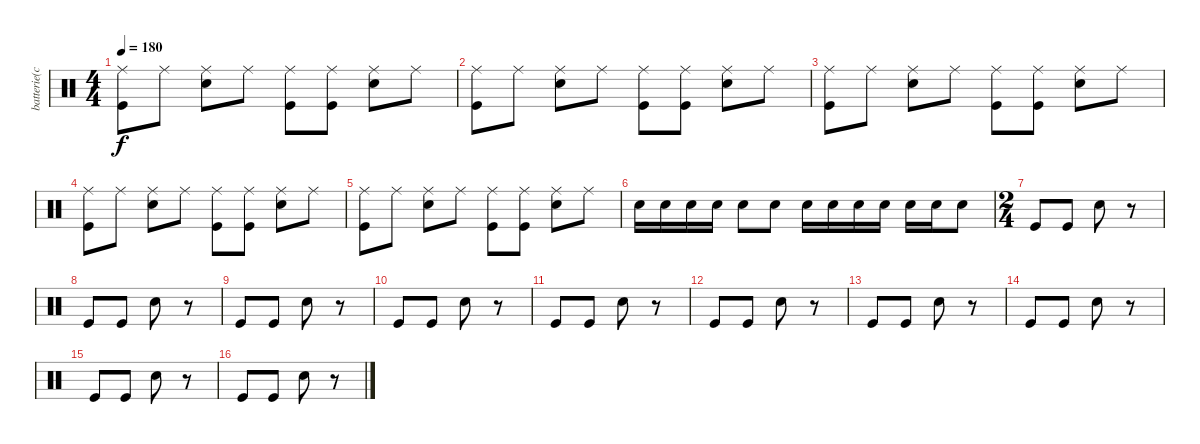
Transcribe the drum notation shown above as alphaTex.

\track ("batterie(chip)" "batterie(c") {instrument percussion}
\staff {score}
\articulation defaults
\ts (4 4)
\tempo 180
\clef neutral
\ks c
("Ride (middle)" "Kick (hit)").8{dy f} "Ride (middle)".8 ("Ride (middle)" "Snare (hit) 2").8 "Ride (middle)".8 ("Ride (middle)" "Kick (hit)").8 ("Ride (middle)" "Kick (hit)").8 ("Ride (middle)" "Snare (hit) 2").8 "Ride (middle)".8 |
("Ride (middle)" "Kick (hit)").8 "Ride (middle)".8 ("Ride (middle)" "Snare (hit) 2").8 "Ride (middle)".8 ("Ride (middle)" "Kick (hit)").8 ("Ride (middle)" "Kick (hit)").8 ("Ride (middle)" "Snare (hit) 2").8 "Ride (middle)".8 |
("Ride (middle)" "Kick (hit)").8 "Ride (middle)".8 ("Ride (middle)" "Snare (hit) 2").8 "Ride (middle)".8 ("Ride (middle)" "Kick (hit)").8 ("Ride (middle)" "Kick (hit)").8 ("Ride (middle)" "Snare (hit) 2").8 "Ride (middle)".8 |
("Ride (middle)" "Kick (hit)").8 "Ride (middle)".8 ("Ride (middle)" "Snare (hit) 2").8 "Ride (middle)".8 ("Ride (middle)" "Kick (hit)").8 ("Ride (middle)" "Kick (hit)").8 ("Ride (middle)" "Snare (hit) 2").8 "Ride (middle)".8 |
("Ride (middle)" "Kick (hit)").8 "Ride (middle)".8 ("Ride (middle)" "Snare (hit) 2").8 "Ride (middle)".8 ("Ride (middle)" "Kick (hit)").8 ("Ride (middle)" "Kick (hit)").8 ("Ride (middle)" "Snare (hit) 2").8 "Ride (middle)".8 |
"Snare (hit) 2".16 "Snare (hit) 2".16 "Snare (hit) 2".16 "Snare (hit) 2".16 "Snare (hit) 2".8 "Snare (hit) 2".8 "Snare (hit) 2".16 "Snare (hit) 2".16 "Snare (hit) 2".16 "Snare (hit) 2".16 "Snare (hit) 2".16 "Snare (hit) 2".16 "Snare (hit) 2".8 |
\ts (2 4)
"Kick (hit)".8 "Kick (hit)".8 "Snare (hit) 2".8 r.8 |
"Kick (hit)".8 "Kick (hit)".8 "Snare (hit) 2".8 r.8 |
"Kick (hit)".8 "Kick (hit)".8 "Snare (hit) 2".8 r.8 |
"Kick (hit)".8 "Kick (hit)".8 "Snare (hit) 2".8 r.8 |
"Kick (hit)".8 "Kick (hit)".8 "Snare (hit) 2".8 r.8 |
"Kick (hit)".8 "Kick (hit)".8 "Snare (hit) 2".8 r.8 |
"Kick (hit)".8 "Kick (hit)".8 "Snare (hit) 2".8 r.8 |
"Kick (hit)".8 "Kick (hit)".8 "Snare (hit) 2".8 r.8 |
"Kick (hit)".8 "Kick (hit)".8 "Snare (hit) 2".8 r.8 |
"Kick (hit)".8 "Kick (hit)".8 "Snare (hit) 2".8 r.8
